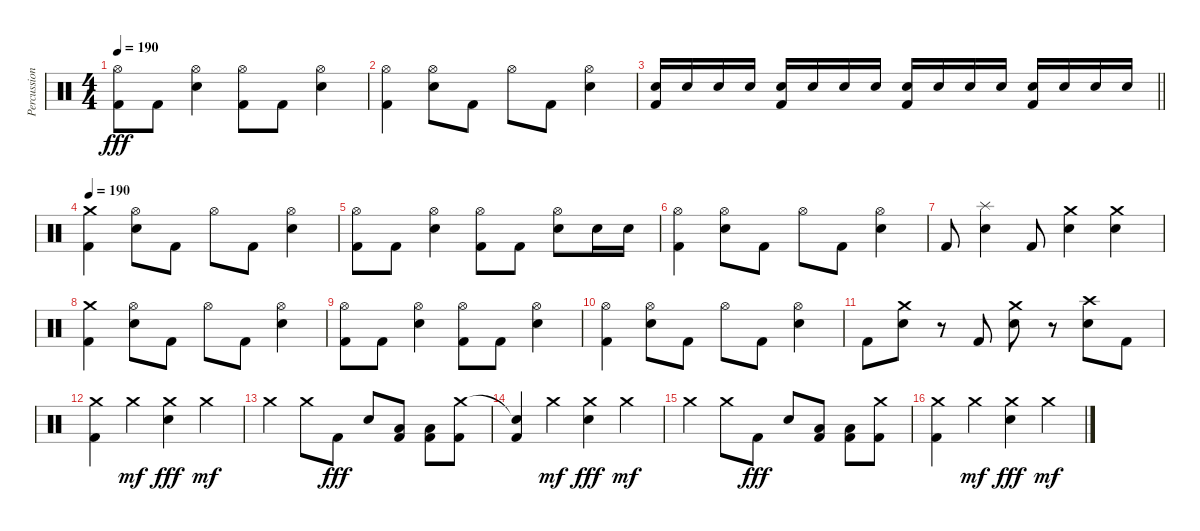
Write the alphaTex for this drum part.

\track ("Percussion" "Percussion") {instrument percussion}
\staff {score}
\articulation defaults
\ts (4 4)
\tempo 190
\clef neutral
\ks c
("Hi-Hat (open)" "Kick (hit) 2").8{dy fff} "Kick (hit) 2".8 ("Hi-Hat (open)" "Electric Snare (hit)").4 ("Hi-Hat (open)" "Kick (hit) 2").8 "Kick (hit) 2".8 ("Hi-Hat (open)" "Electric Snare (hit)").4 |
("Hi-Hat (open)" "Kick (hit) 2").4 ("Hi-Hat (open)" "Electric Snare (hit)").8 "Kick (hit) 2".8 "Hi-Hat (open)".8 "Kick (hit) 2".8 ("Hi-Hat (open)" "Electric Snare (hit)").4 |
\barLineRight lightlight
("Electric Snare (hit)" "Kick (hit) 2").16 "Electric Snare (hit)".16 "Electric Snare (hit)".16 "Electric Snare (hit)".16 ("Electric Snare (hit)" "Kick (hit) 2").16 "Electric Snare (hit)".16 "Electric Snare (hit)".16 "Electric Snare (hit)".16 ("Electric Snare (hit)" "Kick (hit) 2").16 "Electric Snare (hit)".16 "Electric Snare (hit)".16 "Electric Snare (hit)".16 ("Electric Snare (hit)" "Kick (hit) 2").16 "Electric Snare (hit)".16 "Electric Snare (hit)".16 "Electric Snare (hit)".16 |
\tempo 190
("Crash medium (hit)" "Kick (hit) 2").4 ("Hi-Hat (open)" "Electric Snare (hit)").8 "Kick (hit) 2".8 "Hi-Hat (open)".8 "Kick (hit) 2".8 ("Hi-Hat (open)" "Electric Snare (hit)").4 |
("Hi-Hat (open)" "Kick (hit) 2").8 "Kick (hit) 2".8 ("Hi-Hat (open)" "Electric Snare (hit)").4 ("Hi-Hat (open)" "Kick (hit) 2").8 "Kick (hit) 2".8 ("Hi-Hat (open)" "Electric Snare (hit)").8 "Electric Snare (hit)".16 "Electric Snare (hit)".16 |
("Hi-Hat (open)" "Kick (hit) 2").4 ("Hi-Hat (open)" "Electric Snare (hit)").8 "Kick (hit) 2".8 "Hi-Hat (open)".8 "Kick (hit) 2".8 ("Hi-Hat (open)" "Electric Snare (hit)").4 |
"Kick (hit) 2".8 ("Splash (hit)" "Electric Snare (hit)").4 "Kick (hit) 2".8 ("Crash medium (hit)" "Electric Snare (hit)").4 ("Crash medium (hit)" "Electric Snare (hit)").4 |
("Crash medium (hit)" "Kick (hit) 2").4 ("Hi-Hat (open)" "Electric Snare (hit)").8 "Kick (hit) 2".8 "Hi-Hat (open)".8 "Kick (hit) 2".8 ("Hi-Hat (open)" "Electric Snare (hit)").4 |
("Hi-Hat (open)" "Kick (hit) 2").8 "Kick (hit) 2".8 ("Hi-Hat (open)" "Electric Snare (hit)").4 ("Hi-Hat (open)" "Kick (hit) 2").8 "Kick (hit) 2".8 ("Hi-Hat (open)" "Electric Snare (hit)").4 |
("Hi-Hat (open)" "Kick (hit) 2").4 ("Hi-Hat (open)" "Electric Snare (hit)").8 "Kick (hit) 2".8 "Hi-Hat (open)".8 "Kick (hit) 2".8 ("Hi-Hat (open)" "Electric Snare (hit)").4 |
"Kick (hit) 2".8 ("Crash medium (hit)" "Electric Snare (hit)").8 r.8 "Kick (hit) 2".8 ("Crash medium (hit)" "Electric Snare (hit)").8 r.8 ("Crash high (hit)" "Electric Snare (hit)").8 "Kick (hit) 2".8 |
("Crash medium (hit)" "Kick (hit) 2").4 "Crash medium (hit)".4{dy mf} ("Crash medium (hit)" "Electric Snare (hit)").4{dy fff} "Crash medium (hit)".4{dy mf} |
"Crash medium (hit)".4 "Crash medium (hit)".8 "Kick (hit) 2".8{dy fff} "Electric Snare (hit)".8 ("Low Floor Tom (hit)" "Kick (hit) 2").8 ("Low Floor Tom (hit)" "Kick (hit) 2").8 ("Crash medium (hit)" "Kick (hit) 2").8 |
("Snare (hit)"{t} "Kick (hit) 2").4 "Crash medium (hit)".4{dy mf} ("Crash medium (hit)" "Electric Snare (hit)").4{dy fff} "Crash medium (hit)".4{dy mf} |
"Crash medium (hit)".4 "Crash medium (hit)".8 "Kick (hit) 2".8{dy fff} "Electric Snare (hit)".8 ("Low Floor Tom (hit)" "Kick (hit) 2").8 ("Low Floor Tom (hit)" "Kick (hit) 2").8 ("Crash medium (hit)" "Kick (hit) 2").8 |
("Crash medium (hit)" "Kick (hit) 2").4 "Crash medium (hit)".4{dy mf} ("Crash medium (hit)" "Electric Snare (hit)").4{dy fff} "Crash medium (hit)".4{dy mf}
